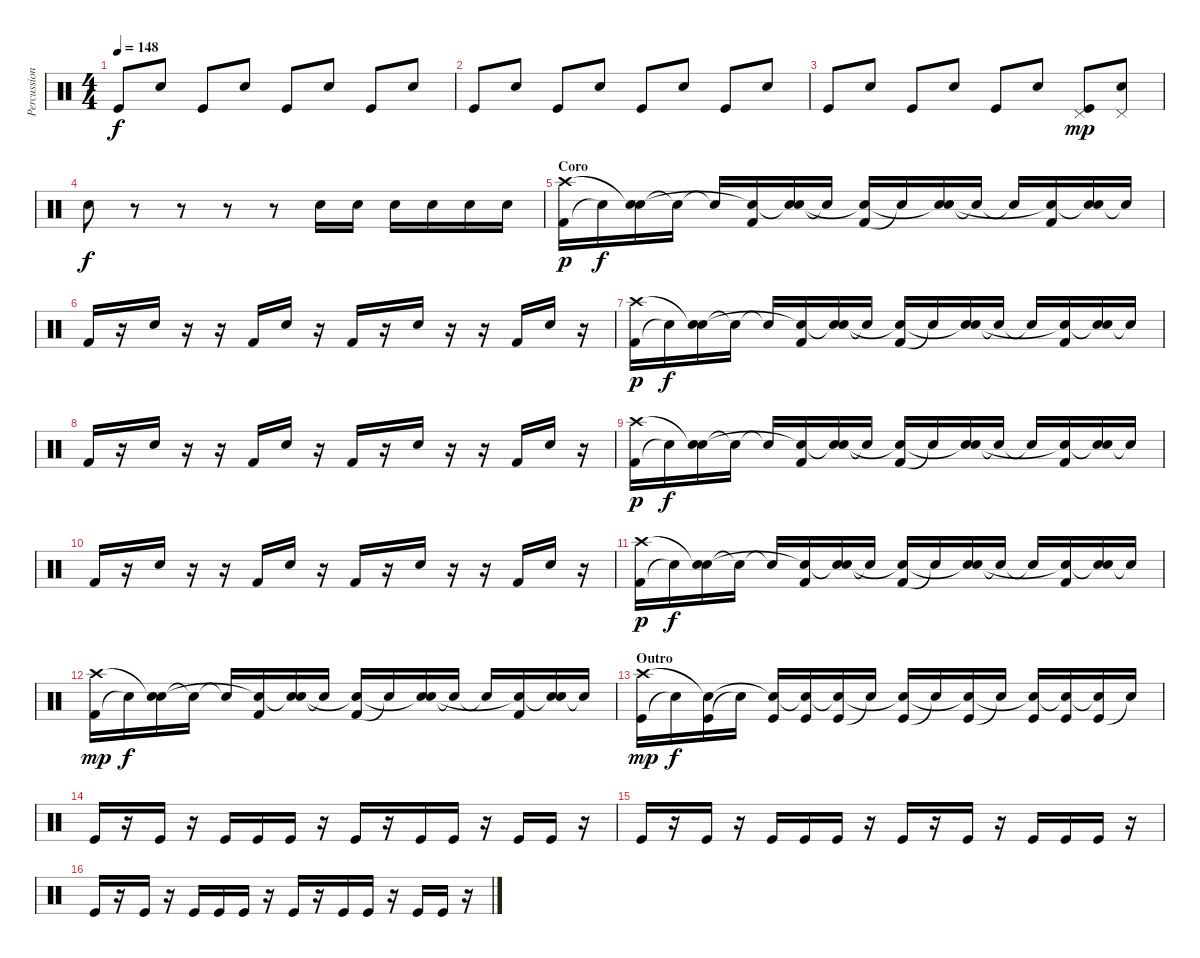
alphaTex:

\track ("Percussion" "Percussion") {instrument percussion}
\staff {score}
\articulation defaults
\ts (4 4)
\tempo 148
\clef neutral
\ks c "Kick (hit)".8{dy f} "Electric Snare (hit)".8 "Kick (hit)".8 "Electric Snare (hit)".8 "Kick (hit)".8 "Electric Snare (hit)".8 "Kick (hit)".8 "Electric Snare (hit)".8
|
"Kick (hit)".8 "Electric Snare (hit)".8 "Kick (hit)".8 "Electric Snare (hit)".8 "Kick (hit)".8 "Electric Snare (hit)".8 "Kick (hit)".8 "Electric Snare (hit)".8 |
"Kick (hit)".8 "Electric Snare (hit)".8 "Kick (hit)".8 "Electric Snare (hit)".8 "Kick (hit)".8 "Electric Snare (hit)".8 ("Pedal Hi-Hat (hit)" "Kick (hit)").8{dy mp} ("Pedal Hi-Hat (hit)" "Electric Snare (hit)").8 |
"Electric Snare (hit)".8{dy f} r.8 r.8 r.8 r.8 "Electric Snare (hit)".16 "Electric Snare (hit)".16 "Electric Snare (hit)".16 "Electric Snare (hit)".16 "Electric Snare (hit)".16 "Electric Snare (hit)".16 |
\section ("" "Coro")
("Kick (hit) 2" "Crash high (hit)").16{dy p} "Snare (hit)"{t}.16{dy f} ("Electric Snare (hit)" "Snare (hit)"{t}).16 "Snare (hit)"{t}.16 "Snare (hit)"{t}.16 ("Kick (hit) 2" "Snare (hit)"{t}).16 ("Electric Snare (hit)" "Snare (hit)"{t}).16 "Snare (hit)"{t}.16 ("Kick (hit) 2" "Snare (hit)"{t}).16 "Snare (hit)"{t}.16 ("Electric Snare (hit)" "Snare (hit)"{t}).16 "Snare (hit)"{t}.16 "Snare (hit)"{t}.16 ("Kick (hit) 2" "Snare (hit)"{t}).16 ("Electric Snare (hit)" "Snare (hit)"{t}).16 "Snare (hit)"{t}.16 |
"Kick (hit) 2".16 r.16 "Electric Snare (hit)".16 r.16 r.16 "Kick (hit) 2".16 "Electric Snare (hit)".16 r.16 "Kick (hit) 2".16 r.16 "Electric Snare (hit)".16 r.16 r.16 "Kick (hit) 2".16 "Electric Snare (hit)".16 r.16 |
("Kick (hit) 2" "Crash high (hit)").16{dy p} "Snare (hit)"{t}.16{dy f} ("Electric Snare (hit)" "Snare (hit)"{t}).16 "Snare (hit)"{t}.16 "Snare (hit)"{t}.16 ("Kick (hit) 2" "Snare (hit)"{t}).16 ("Electric Snare (hit)" "Snare (hit)"{t}).16 "Snare (hit)"{t}.16 ("Kick (hit) 2" "Snare (hit)"{t}).16 "Snare (hit)"{t}.16 ("Electric Snare (hit)" "Snare (hit)"{t}).16 "Snare (hit)"{t}.16 "Snare (hit)"{t}.16 ("Kick (hit) 2" "Snare (hit)"{t}).16 ("Electric Snare (hit)" "Snare (hit)"{t}).16 "Snare (hit)"{t}.16 |
"Kick (hit) 2".16 r.16 "Electric Snare (hit)".16 r.16 r.16 "Kick (hit) 2".16 "Electric Snare (hit)".16 r.16 "Kick (hit) 2".16 r.16 "Electric Snare (hit)".16 r.16 r.16 "Kick (hit) 2".16 "Electric Snare (hit)".16 r.16 |
("Kick (hit) 2" "Crash high (hit)").16{dy p} "Snare (hit)"{t}.16{dy f} ("Electric Snare (hit)" "Snare (hit)"{t}).16 "Snare (hit)"{t}.16 "Snare (hit)"{t}.16 ("Kick (hit) 2" "Snare (hit)"{t}).16 ("Electric Snare (hit)" "Snare (hit)"{t}).16 "Snare (hit)"{t}.16 ("Kick (hit) 2" "Snare (hit)"{t}).16 "Snare (hit)"{t}.16 ("Electric Snare (hit)" "Snare (hit)"{t}).16 "Snare (hit)"{t}.16 "Snare (hit)"{t}.16 ("Kick (hit) 2" "Snare (hit)"{t}).16 ("Electric Snare (hit)" "Snare (hit)"{t}).16 "Snare (hit)"{t}.16 |
"Kick (hit) 2".16 r.16 "Electric Snare (hit)".16 r.16 r.16 "Kick (hit) 2".16 "Electric Snare (hit)".16 r.16 "Kick (hit) 2".16 r.16 "Electric Snare (hit)".16 r.16 r.16 "Kick (hit) 2".16 "Electric Snare (hit)".16 r.16 |
("Kick (hit) 2" "Crash high (hit)").16{dy p} "Snare (hit)"{t}.16{dy f} ("Electric Snare (hit)" "Snare (hit)"{t}).16 "Snare (hit)"{t}.16 "Snare (hit)"{t}.16 ("Kick (hit) 2" "Snare (hit)"{t}).16 ("Electric Snare (hit)" "Snare (hit)"{t}).16 "Snare (hit)"{t}.16 ("Kick (hit) 2" "Snare (hit)"{t}).16 "Snare (hit)"{t}.16 ("Electric Snare (hit)" "Snare (hit)"{t}).16 "Snare (hit)"{t}.16 "Snare (hit)"{t}.16 ("Kick (hit) 2" "Snare (hit)"{t}).16 ("Electric Snare (hit)" "Snare (hit)"{t}).16 "Snare (hit)"{t}.16 |
("Kick (hit) 2" "Crash high (hit)").16{dy mp} "Snare (hit)"{t}.16{dy f} ("Electric Snare (hit)" "Snare (hit)"{t}).16 "Snare (hit)"{t}.16 "Snare (hit)"{t}.16 ("Kick (hit) 2" "Snare (hit)"{t}).16 ("Electric Snare (hit)" "Snare (hit)"{t}).16 "Snare (hit)"{t}.16 ("Kick (hit) 2" "Snare (hit)"{t}).16 "Snare (hit)"{t}.16 ("Electric Snare (hit)" "Snare (hit)"{t}).16 "Snare (hit)"{t}.16 "Snare (hit)"{t}.16 ("Kick (hit) 2" "Snare (hit)"{t}).16 ("Electric Snare (hit)" "Snare (hit)"{t}).16 "Snare (hit)"{t}.16 |
\section ("" "Outro")
("Kick (hit)" "Crash high (hit)").16{dy mp} "Snare (hit)"{t}.16{dy f} ("Kick (hit)" "Snare (hit)"{t}).16 "Snare (hit)"{t}.16 ("Kick (hit)" "Snare (hit)"{t}).16 ("Kick (hit)" "Snare (hit)"{t}).16 ("Kick (hit)" "Snare (hit)"{t}).16 "Snare (hit)"{t}.16 ("Kick (hit)" "Snare (hit)"{t}).16 "Snare (hit)"{t}.16 ("Kick (hit)" "Snare (hit)"{t}).16 "Snare (hit)"{t}.16 ("Kick (hit)" "Snare (hit)"{t}).16 ("Kick (hit)" "Snare (hit)"{t}).16 ("Kick (hit)" "Snare (hit)"{t}).16 "Snare (hit)"{t}.16 |
"Kick (hit)".16 r.16 "Kick (hit)".16 r.16 "Kick (hit)".16 "Kick (hit)".16 "Kick (hit)".16 r.16 "Kick (hit)".16 r.16 "Kick (hit)".16 "Kick (hit)".16 r.16 "Kick (hit)".16 "Kick (hit)".16 r.16 |
"Kick (hit)".16 r.16 "Kick (hit)".16 r.16 "Kick (hit)".16 "Kick (hit)".16 "Kick (hit)".16 r.16 "Kick (hit)".16 r.16 "Kick (hit)".16 r.16 "Kick (hit)".16 "Kick (hit)".16 "Kick (hit)".16 r.16 |
"Kick (hit)".16 r.16 "Kick (hit)".16 r.16 "Kick (hit)".16 "Kick (hit)".16 "Kick (hit)".16 r.16 "Kick (hit)".16 r.16 "Kick (hit)".16 "Kick (hit)".16 r.16 "Kick (hit)".16 "Kick (hit)".16 r.16
